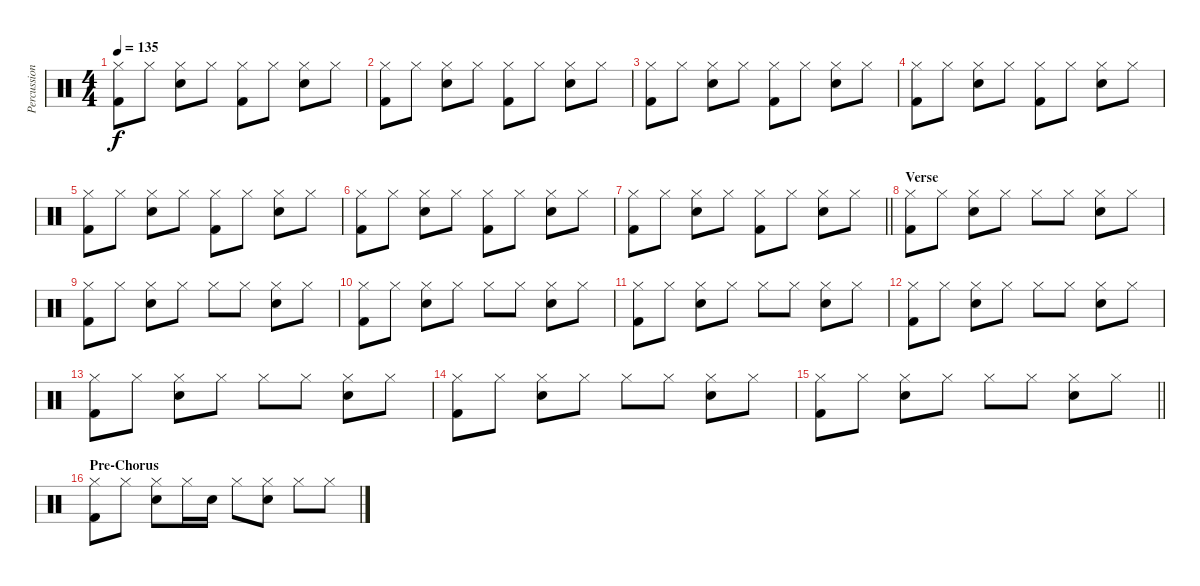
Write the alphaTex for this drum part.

\track ("Percussion" "Percussion") {instrument percussion}
\staff {score}
\articulation defaults
\ts (4 4)
\tempo 135
\clef neutral
\ks c
("Hi-Hat (closed)" "Kick (hit) 2").8{dy f} "Hi-Hat (closed)".8 ("Hi-Hat (closed)" "Snare (hit) 2").8 "Hi-Hat (closed)".8 ("Hi-Hat (closed)" "Kick (hit) 2").8 "Hi-Hat (closed)".8 ("Hi-Hat (closed)" "Snare (hit) 2").8 "Hi-Hat (closed)".8 |
("Hi-Hat (closed)" "Kick (hit) 2").8 "Hi-Hat (closed)".8 ("Hi-Hat (closed)" "Snare (hit) 2").8 "Hi-Hat (closed)".8 ("Hi-Hat (closed)" "Kick (hit) 2").8 "Hi-Hat (closed)".8 ("Hi-Hat (closed)" "Snare (hit) 2").8 "Hi-Hat (closed)".8 |
("Hi-Hat (closed)" "Kick (hit) 2").8 "Hi-Hat (closed)".8 ("Hi-Hat (closed)" "Snare (hit) 2").8 "Hi-Hat (closed)".8 ("Hi-Hat (closed)" "Kick (hit) 2").8 "Hi-Hat (closed)".8 ("Hi-Hat (closed)" "Snare (hit) 2").8 "Hi-Hat (closed)".8 |
("Hi-Hat (closed)" "Kick (hit) 2").8 "Hi-Hat (closed)".8 ("Hi-Hat (closed)" "Snare (hit) 2").8 "Hi-Hat (closed)".8 ("Hi-Hat (closed)" "Kick (hit) 2").8 "Hi-Hat (closed)".8 ("Hi-Hat (closed)" "Snare (hit) 2").8 "Hi-Hat (closed)".8 |
("Hi-Hat (closed)" "Kick (hit) 2").8 "Hi-Hat (closed)".8 ("Hi-Hat (closed)" "Snare (hit) 2").8 "Hi-Hat (closed)".8 ("Hi-Hat (closed)" "Kick (hit) 2").8 "Hi-Hat (closed)".8 ("Hi-Hat (closed)" "Snare (hit) 2").8 "Hi-Hat (closed)".8 |
("Hi-Hat (closed)" "Kick (hit) 2").8 "Hi-Hat (closed)".8 ("Hi-Hat (closed)" "Snare (hit) 2").8 "Hi-Hat (closed)".8 ("Hi-Hat (closed)" "Kick (hit) 2").8 "Hi-Hat (closed)".8 ("Hi-Hat (closed)" "Snare (hit) 2").8 "Hi-Hat (closed)".8 |
\barLineRight lightlight
("Hi-Hat (closed)" "Kick (hit) 2").8 "Hi-Hat (closed)".8 ("Hi-Hat (closed)" "Snare (hit) 2").8 "Hi-Hat (closed)".8 ("Hi-Hat (closed)" "Kick (hit) 2").8 "Hi-Hat (closed)".8 ("Hi-Hat (closed)" "Snare (hit) 2").8 "Hi-Hat (closed)".8 |
\section ("" "Verse")
("Hi-Hat (closed)" "Kick (hit) 2").8 "Hi-Hat (closed)".8 ("Hi-Hat (closed)" "Snare (hit) 2").8 "Hi-Hat (closed)".8 "Hi-Hat (closed)".8 "Hi-Hat (closed)".8 ("Hi-Hat (closed)" "Snare (hit) 2").8 "Hi-Hat (closed)".8 |
("Hi-Hat (closed)" "Kick (hit) 2").8 "Hi-Hat (closed)".8 ("Hi-Hat (closed)" "Snare (hit) 2").8 "Hi-Hat (closed)".8 "Hi-Hat (closed)".8 "Hi-Hat (closed)".8 ("Hi-Hat (closed)" "Snare (hit) 2").8 "Hi-Hat (closed)".8 |
("Hi-Hat (closed)" "Kick (hit) 2").8 "Hi-Hat (closed)".8 ("Hi-Hat (closed)" "Snare (hit) 2").8 "Hi-Hat (closed)".8 "Hi-Hat (closed)".8 "Hi-Hat (closed)".8 ("Hi-Hat (closed)" "Snare (hit) 2").8 "Hi-Hat (closed)".8 |
("Hi-Hat (closed)" "Kick (hit) 2").8 "Hi-Hat (closed)".8 ("Hi-Hat (closed)" "Snare (hit) 2").8 "Hi-Hat (closed)".8 "Hi-Hat (closed)".8 "Hi-Hat (closed)".8 ("Hi-Hat (closed)" "Snare (hit) 2").8 "Hi-Hat (closed)".8 |
("Hi-Hat (closed)" "Kick (hit) 2").8 "Hi-Hat (closed)".8 ("Hi-Hat (closed)" "Snare (hit) 2").8 "Hi-Hat (closed)".8 "Hi-Hat (closed)".8 "Hi-Hat (closed)".8 ("Hi-Hat (closed)" "Snare (hit) 2").8 "Hi-Hat (closed)".8 |
("Hi-Hat (closed)" "Kick (hit) 2").8 "Hi-Hat (closed)".8 ("Hi-Hat (closed)" "Snare (hit) 2").8 "Hi-Hat (closed)".8 "Hi-Hat (closed)".8 "Hi-Hat (closed)".8 ("Hi-Hat (closed)" "Snare (hit) 2").8 "Hi-Hat (closed)".8 |
("Hi-Hat (closed)" "Kick (hit) 2").8 "Hi-Hat (closed)".8 ("Hi-Hat (closed)" "Snare (hit) 2").8 "Hi-Hat (closed)".8 "Hi-Hat (closed)".8 "Hi-Hat (closed)".8 ("Hi-Hat (closed)" "Snare (hit) 2").8 "Hi-Hat (closed)".8 |
\barLineRight lightlight
("Hi-Hat (closed)" "Kick (hit) 2").8 "Hi-Hat (closed)".8 ("Hi-Hat (closed)" "Snare (hit) 2").8 "Hi-Hat (closed)".8 "Hi-Hat (closed)".8 "Hi-Hat (closed)".8 ("Hi-Hat (closed)" "Snare (hit) 2").8 "Hi-Hat (closed)".8 |
\section ("" "Pre-Chorus")
("Hi-Hat (closed)" "Kick (hit) 2").8 "Hi-Hat (closed)".8 ("Hi-Hat (closed)" "Snare (hit) 2").8 "Hi-Hat (closed)".16 "Snare (hit) 2".16 "Hi-Hat (closed)".8 ("Hi-Hat (closed)" "Snare (hit) 2").8 "Hi-Hat (closed)".8 "Hi-Hat (closed)".8
